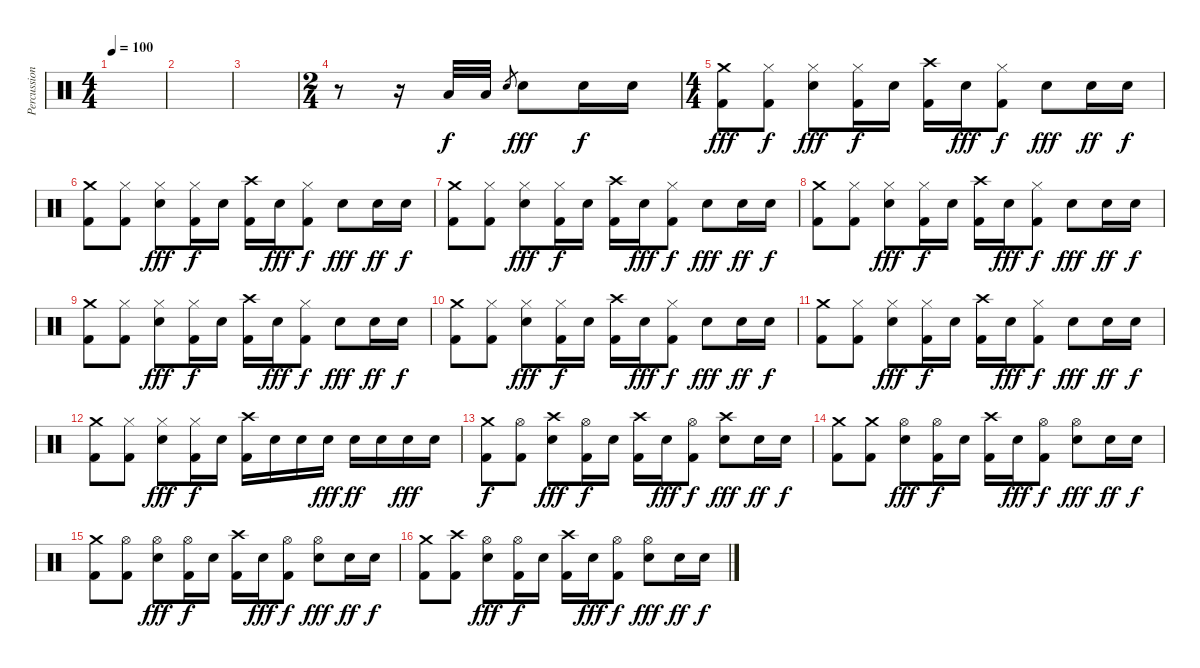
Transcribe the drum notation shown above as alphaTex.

\track ("Percussion" "Percussion") {instrument percussion}
\staff {score}
\articulation defaults
\ts (4 4)
\tempo 100
\clef neutral
\ks c
|
|
|
\ts (2 4)
r.8 r.16 "Low Floor Tom (hit)".32{dy f} "Low Floor Tom (hit)".32 "Electric Snare (hit)".8{gr} "Electric Snare (hit)".8{dy fff} "Electric Snare (hit)".16{dy f} "Electric Snare (hit)".16 |
\ts (4 4)
("Crash medium (hit)" "Kick (hit) 2").8{dy fff} ("Hi-Hat (closed)" "Kick (hit) 2").8{dy f} ("Hi-Hat (closed)" "Electric Snare (hit)").8{dy fff} ("Hi-Hat (closed)" "Kick (hit) 2").16{dy f} "Electric Snare (hit)".16 ("Crash high (hit)" "Kick (hit) 2").16 "Electric Snare (hit)".16{dy fff} ("Hi-Hat (closed)" "Kick (hit) 2").8{dy f} "Electric Snare (hit)".8{dy fff} "Electric Snare (hit)".16{dy ff} "Electric Snare (hit)".16{dy f} |
("Crash medium (hit)" "Kick (hit) 2").8 ("Hi-Hat (closed)" "Kick (hit) 2").8 ("Hi-Hat (closed)" "Electric Snare (hit)").8{dy fff} ("Hi-Hat (closed)" "Kick (hit) 2").16{dy f} "Electric Snare (hit)".16 ("Crash high (hit)" "Kick (hit) 2").16 "Electric Snare (hit)".16{dy fff} ("Hi-Hat (closed)" "Kick (hit) 2").8{dy f} "Electric Snare (hit)".8{dy fff} "Electric Snare (hit)".16{dy ff} "Electric Snare (hit)".16{dy f} |
("Crash medium (hit)" "Kick (hit) 2").8 ("Hi-Hat (closed)" "Kick (hit) 2").8 ("Hi-Hat (closed)" "Electric Snare (hit)").8{dy fff} ("Hi-Hat (closed)" "Kick (hit) 2").16{dy f} "Electric Snare (hit)".16 ("Crash high (hit)" "Kick (hit) 2").16 "Electric Snare (hit)".16{dy fff} ("Hi-Hat (closed)" "Kick (hit) 2").8{dy f} "Electric Snare (hit)".8{dy fff} "Electric Snare (hit)".16{dy ff} "Electric Snare (hit)".16{dy f} |
("Crash medium (hit)" "Kick (hit) 2").8 ("Hi-Hat (closed)" "Kick (hit) 2").8 ("Hi-Hat (closed)" "Electric Snare (hit)").8{dy fff} ("Hi-Hat (closed)" "Kick (hit) 2").16{dy f} "Electric Snare (hit)".16 ("Crash high (hit)" "Kick (hit) 2").16 "Electric Snare (hit)".16{dy fff} ("Hi-Hat (closed)" "Kick (hit) 2").8{dy f} "Electric Snare (hit)".8{dy fff} "Electric Snare (hit)".16{dy ff} "Electric Snare (hit)".16{dy f} |
("Crash medium (hit)" "Kick (hit) 2").8 ("Hi-Hat (closed)" "Kick (hit) 2").8 ("Hi-Hat (closed)" "Electric Snare (hit)").8{dy fff} ("Hi-Hat (closed)" "Kick (hit) 2").16{dy f} "Electric Snare (hit)".16 ("Crash high (hit)" "Kick (hit) 2").16 "Electric Snare (hit)".16{dy fff} ("Hi-Hat (closed)" "Kick (hit) 2").8{dy f} "Electric Snare (hit)".8{dy fff} "Electric Snare (hit)".16{dy ff} "Electric Snare (hit)".16{dy f} |
("Crash medium (hit)" "Kick (hit) 2").8 ("Hi-Hat (closed)" "Kick (hit) 2").8 ("Hi-Hat (closed)" "Electric Snare (hit)").8{dy fff} ("Hi-Hat (closed)" "Kick (hit) 2").16{dy f} "Electric Snare (hit)".16 ("Crash high (hit)" "Kick (hit) 2").16 "Electric Snare (hit)".16{dy fff} ("Hi-Hat (closed)" "Kick (hit) 2").8{dy f} "Electric Snare (hit)".8{dy fff} "Electric Snare (hit)".16{dy ff} "Electric Snare (hit)".16{dy f} |
("Crash medium (hit)" "Kick (hit) 2").8 ("Hi-Hat (closed)" "Kick (hit) 2").8 ("Hi-Hat (closed)" "Electric Snare (hit)").8{dy fff} ("Hi-Hat (closed)" "Kick (hit) 2").16{dy f} "Electric Snare (hit)".16 ("Crash high (hit)" "Kick (hit) 2").16 "Electric Snare (hit)".16{dy fff} ("Hi-Hat (closed)" "Kick (hit) 2").8{dy f} "Electric Snare (hit)".8{dy fff} "Electric Snare (hit)".16{dy ff} "Electric Snare (hit)".16{dy f} |
("Crash medium (hit)" "Kick (hit) 2").8 ("Hi-Hat (closed)" "Kick (hit) 2").8 ("Hi-Hat (closed)" "Electric Snare (hit)").8{dy fff} ("Hi-Hat (closed)" "Kick (hit) 2").16{dy f} "Electric Snare (hit)".16 ("Crash high (hit)" "Kick (hit) 2").16 "Electric Snare (hit)".16 "Electric Snare (hit)".16 "Electric Snare (hit)".16{dy fff} "Electric Snare (hit)".16{dy ff} "Electric Snare (hit)".16 "Electric Snare (hit)".16{dy fff} "Electric Snare (hit)".16 |
("Crash medium (hit)" "Kick (hit) 2").8{dy f} ("Hi-Hat (open)" "Kick (hit) 2").8 ("Crash high (hit)" "Electric Snare (hit)").8{dy fff} ("Hi-Hat (open)" "Kick (hit) 2").16{dy f} "Electric Snare (hit)".16 ("Crash high (hit)" "Kick (hit) 2").16 "Electric Snare (hit)".16{dy fff} ("Hi-Hat (open)" "Kick (hit) 2").8{dy f} ("Crash high (hit)" "Electric Snare (hit)").8{dy fff} "Electric Snare (hit)".16{dy ff} "Electric Snare (hit)".16{dy f} |
("Crash medium (hit)" "Kick (hit) 2").8 ("Crash medium (hit)" "Kick (hit) 2").8 ("Hi-Hat (open)" "Electric Snare (hit)").8{dy fff} ("Hi-Hat (open)" "Kick (hit) 2").16{dy f} "Electric Snare (hit)".16 ("Crash high (hit)" "Kick (hit) 2").16 "Electric Snare (hit)".16{dy fff} ("Hi-Hat (open)" "Kick (hit) 2").8{dy f} ("Hi-Hat (open)" "Electric Snare (hit)").8{dy fff} "Electric Snare (hit)".16{dy ff} "Electric Snare (hit)".16{dy f} |
("Crash medium (hit)" "Kick (hit) 2").8 ("Hi-Hat (open)" "Kick (hit) 2").8 ("Hi-Hat (open)" "Electric Snare (hit)").8{dy fff} ("Hi-Hat (open)" "Kick (hit) 2").16{dy f} "Electric Snare (hit)".16 ("Crash high (hit)" "Kick (hit) 2").16 "Electric Snare (hit)".16{dy fff} ("Hi-Hat (open)" "Kick (hit) 2").8{dy f} ("Hi-Hat (open)" "Electric Snare (hit)").8{dy fff} "Electric Snare (hit)".16{dy ff} "Electric Snare (hit)".16{dy f} |
("Crash medium (hit)" "Kick (hit) 2").8 ("Crash high (hit)" "Kick (hit) 2").8 ("Hi-Hat (open)" "Electric Snare (hit)").8{dy fff} ("Hi-Hat (open)" "Kick (hit) 2").16{dy f} "Electric Snare (hit)".16 ("Crash high (hit)" "Kick (hit) 2").16 "Electric Snare (hit)".16{dy fff} ("Hi-Hat (open)" "Kick (hit) 2").8{dy f} ("Hi-Hat (open)" "Electric Snare (hit)").8{dy fff} "Electric Snare (hit)".16{dy ff} "Electric Snare (hit)".16{dy f}
